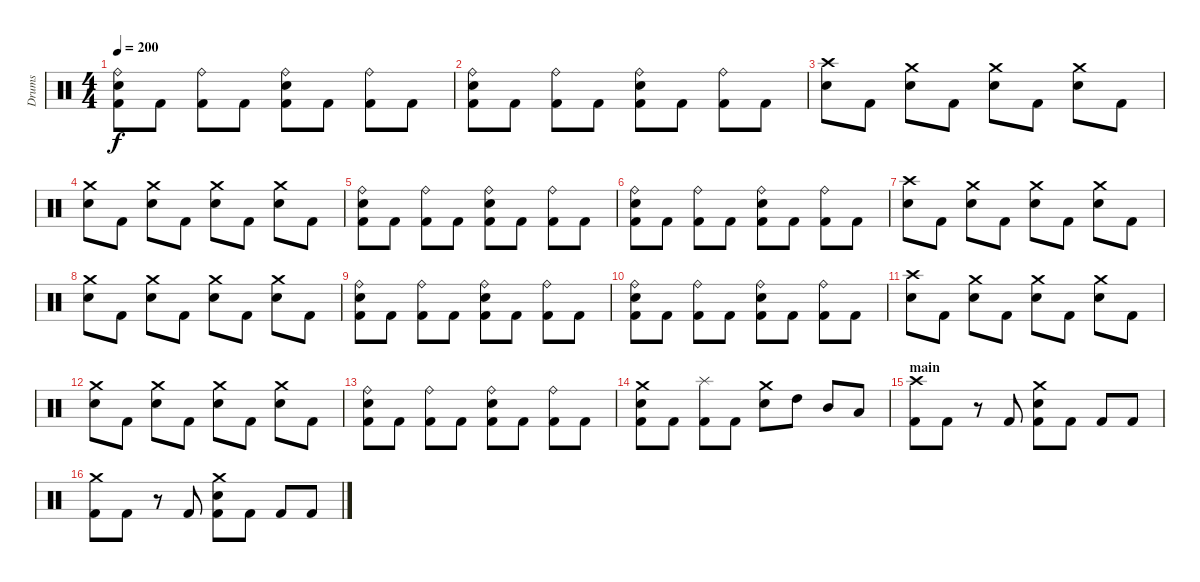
\track ("Drums" "Drums") {instrument percussion}
\staff {score}
\articulation defaults
\ts (4 4)
\tempo 200
\clef neutral
\ks c
("Ride (bell)" "Electric Snare (hit)" "Kick (hit) 2").8{dy f} "Kick (hit) 2".8 ("Ride (bell)" "Kick (hit) 2").8 "Kick (hit) 2".8 ("Ride (bell)" "Electric Snare (hit)" "Kick (hit) 2").8 "Kick (hit) 2".8 ("Ride (bell)" "Kick (hit) 2").8 "Kick (hit) 2".8 |
("Ride (bell)" "Electric Snare (hit)" "Kick (hit) 2").8 "Kick (hit) 2".8 ("Ride (bell)" "Kick (hit) 2").8 "Kick (hit) 2".8 ("Ride (bell)" "Electric Snare (hit)" "Kick (hit) 2").8 "Kick (hit) 2".8 ("Ride (bell)" "Kick (hit) 2").8 "Kick (hit) 2".8 |
("Crash high (hit)" "Electric Snare (hit)").8 "Kick (hit) 2".8 ("Crash medium (hit)" "Electric Snare (hit)").8 "Kick (hit) 2".8 ("Crash medium (hit)" "Electric Snare (hit)").8 "Kick (hit) 2".8 ("Crash medium (hit)" "Electric Snare (hit)").8 "Kick (hit) 2".8 |
("Crash medium (hit)" "Electric Snare (hit)").8 "Kick (hit) 2".8 ("Crash medium (hit)" "Electric Snare (hit)").8 "Kick (hit) 2".8 ("Crash medium (hit)" "Electric Snare (hit)").8 "Kick (hit) 2".8 ("Crash medium (hit)" "Electric Snare (hit)").8 "Kick (hit) 2".8 |
("Ride (bell)" "Electric Snare (hit)" "Kick (hit) 2").8 "Kick (hit) 2".8 ("Ride (bell)" "Kick (hit) 2").8 "Kick (hit) 2".8 ("Ride (bell)" "Electric Snare (hit)" "Kick (hit) 2").8 "Kick (hit) 2".8 ("Ride (bell)" "Kick (hit) 2").8 "Kick (hit) 2".8 |
("Ride (bell)" "Electric Snare (hit)" "Kick (hit) 2").8 "Kick (hit) 2".8 ("Ride (bell)" "Kick (hit) 2").8 "Kick (hit) 2".8 ("Ride (bell)" "Electric Snare (hit)" "Kick (hit) 2").8 "Kick (hit) 2".8 ("Ride (bell)" "Kick (hit) 2").8 "Kick (hit) 2".8 |
("Crash high (hit)" "Electric Snare (hit)").8 "Kick (hit) 2".8 ("Crash medium (hit)" "Electric Snare (hit)").8 "Kick (hit) 2".8 ("Crash medium (hit)" "Electric Snare (hit)").8 "Kick (hit) 2".8 ("Crash medium (hit)" "Electric Snare (hit)").8 "Kick (hit) 2".8 |
("Crash medium (hit)" "Electric Snare (hit)").8 "Kick (hit) 2".8 ("Crash medium (hit)" "Electric Snare (hit)").8 "Kick (hit) 2".8 ("Crash medium (hit)" "Electric Snare (hit)").8 "Kick (hit) 2".8 ("Crash medium (hit)" "Electric Snare (hit)").8 "Kick (hit) 2".8 |
("Ride (bell)" "Electric Snare (hit)" "Kick (hit) 2").8 "Kick (hit) 2".8 ("Ride (bell)" "Kick (hit) 2").8 "Kick (hit) 2".8 ("Ride (bell)" "Electric Snare (hit)" "Kick (hit) 2").8 "Kick (hit) 2".8 ("Ride (bell)" "Kick (hit) 2").8 "Kick (hit) 2".8 |
("Ride (bell)" "Electric Snare (hit)" "Kick (hit) 2").8 "Kick (hit) 2".8 ("Ride (bell)" "Kick (hit) 2").8 "Kick (hit) 2".8 ("Ride (bell)" "Electric Snare (hit)" "Kick (hit) 2").8 "Kick (hit) 2".8 ("Ride (bell)" "Kick (hit) 2").8 "Kick (hit) 2".8 |
("Crash high (hit)" "Electric Snare (hit)").8 "Kick (hit) 2".8 ("Crash medium (hit)" "Electric Snare (hit)").8 "Kick (hit) 2".8 ("Crash medium (hit)" "Electric Snare (hit)").8 "Kick (hit) 2".8 ("Crash medium (hit)" "Electric Snare (hit)").8 "Kick (hit) 2".8 |
("Crash medium (hit)" "Electric Snare (hit)").8 "Kick (hit) 2".8 ("Crash medium (hit)" "Electric Snare (hit)").8 "Kick (hit) 2".8 ("Crash medium (hit)" "Electric Snare (hit)").8 "Kick (hit) 2".8 ("Crash medium (hit)" "Electric Snare (hit)").8 "Kick (hit) 2".8 |
("Ride (bell)" "Electric Snare (hit)" "Kick (hit) 2").8 "Kick (hit) 2".8 ("Ride (bell)" "Kick (hit) 2").8 "Kick (hit) 2".8 ("Ride (bell)" "Electric Snare (hit)" "Kick (hit) 2").8 "Kick (hit) 2".8 ("Ride (bell)" "Kick (hit) 2").8 "Kick (hit) 2".8 |
("Crash medium (hit)" "Electric Snare (hit)" "Kick (hit) 2").8 "Kick (hit) 2".8 ("Splash (hit)" "Kick (hit) 2").8 "Kick (hit) 2".8 ("Crash medium (hit)" "Electric Snare (hit)").8 "High Tom (hit)".8 "Mid Tom (hit)".8 "Low Tom (hit)".8 |
\section ("" "main")
("Crash high (hit)" "Kick (hit) 2").8 "Kick (hit) 2".8 r.8 "Kick (hit) 2".8 ("Crash medium (hit)" "Electric Snare (hit)" "Kick (hit) 2").8 "Kick (hit) 2".8 "Kick (hit) 2".8 "Kick (hit) 2".8 |
("Crash medium (hit)" "Kick (hit) 2").8 "Kick (hit) 2".8 r.8 "Kick (hit) 2".8 ("Crash medium (hit)" "Electric Snare (hit)" "Kick (hit) 2").8 "Kick (hit) 2".8 "Kick (hit) 2".8 "Kick (hit) 2".8
